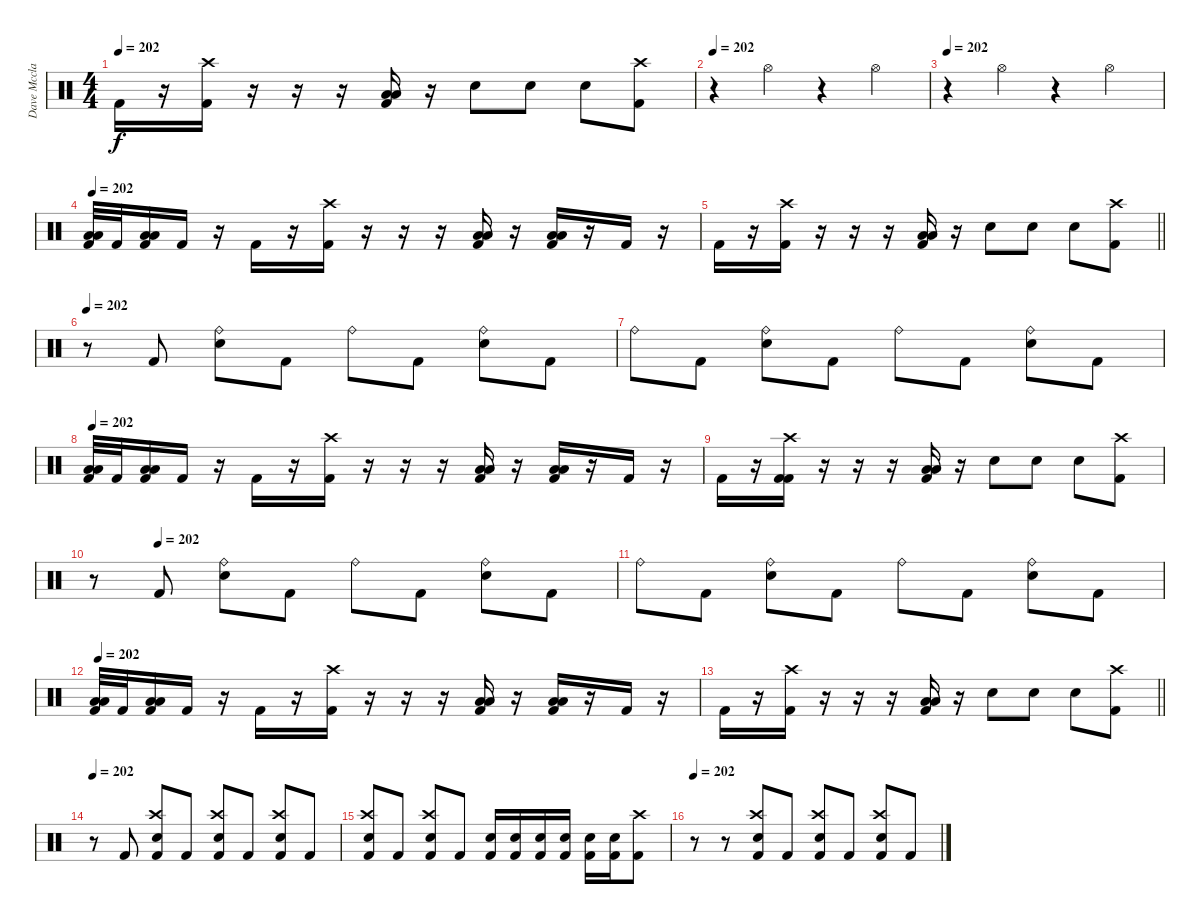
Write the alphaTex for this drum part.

\track ("Dave Mcclain" "Dave Mccla") {instrument percussion}
\staff {score}
\articulation defaults
\ts (4 4)
\tempo 202
\clef neutral
\ks c "Kick (hit) 2".16{dy f}
r.16 ("Crash high (hit)" "Kick (hit) 2").16 r.16 r.16 r.16 ("Low Tom (hit)" "Low Floor Tom (hit)" "Kick (hit) 2").16 r.16 "Electric Snare (hit)".8 "Electric Snare (hit)".8 "Electric Snare (hit)".8 ("Crash high (hit)" "Kick (hit) 2").8 |
\tempo 202
r.4 "Hi-Hat (open)".4 r.4 "Hi-Hat (open)".4 |
\tempo 202
r.4 "Hi-Hat (open)".4 r.4 "Hi-Hat (open)".4 |
\tempo 202
("Low Tom (hit)" "Low Floor Tom (hit)" "Kick (hit) 2").32 "Kick (hit) 2".32 ("Low Tom (hit)" "Low Floor Tom (hit)" "Kick (hit) 2").16 "Kick (hit) 2".16 r.16 "Kick (hit) 2".16 r.16 ("Crash high (hit)" "Kick (hit) 2").16 r.16 r.16 r.16 ("Low Tom (hit)" "Low Floor Tom (hit)" "Kick (hit) 2").16 r.16 ("Low Tom (hit)" "Low Floor Tom (hit)" "Kick (hit) 2").16 r.16 "Kick (hit) 2".16 r.16 |
\barLineRight lightlight "Kick (hit) 2".16
r.16 ("Crash high (hit)" "Kick (hit) 2").16 r.16 r.16 r.16 ("Low Tom (hit)" "Low Floor Tom (hit)" "Kick (hit) 2").16 r.16 "Electric Snare (hit)".8 "Electric Snare (hit)".8 "Electric Snare (hit)".8 ("Crash high (hit)" "Kick (hit) 2").8 |
\section ("" "")
\tempo 202
r.8 "Kick (hit) 2".8 ("Ride (bell)" "Electric Snare (hit)").8 "Kick (hit) 2".8 "Ride (bell)".8 "Kick (hit) 2".8 ("Ride (bell)" "Electric Snare (hit)").8 "Kick (hit) 2".8 |
"Ride (bell)".8 "Kick (hit) 2".8 ("Ride (bell)" "Electric Snare (hit)").8 "Kick (hit) 2".8 "Ride (bell)".8 "Kick (hit) 2".8 ("Ride (bell)" "Electric Snare (hit)").8 "Kick (hit) 2".8 |
\tempo 202
("Low Tom (hit)" "Low Floor Tom (hit)" "Kick (hit) 2").32 "Kick (hit) 2".32 ("Low Tom (hit)" "Low Floor Tom (hit)" "Kick (hit) 2").16 "Kick (hit) 2".16 r.16 "Kick (hit) 2".16 r.16 ("Crash high (hit)" "Kick (hit) 2").16 r.16 r.16 r.16 ("Low Tom (hit)" "Low Floor Tom (hit)" "Kick (hit) 2").16 r.16 ("Low Tom (hit)" "Low Floor Tom (hit)" "Kick (hit) 2").16 r.16 "Kick (hit) 2".16 r.16 |
"Kick (hit) 2".16 r.16 ("Crash high (hit)" "Kick (hit) 2" "Kick (hit) 2").16 r.16 r.16 r.16 ("Low Tom (hit)" "Low Floor Tom (hit)" "Kick (hit) 2").16 r.16 "Electric Snare (hit)".8 "Electric Snare (hit)".8 "Electric Snare (hit)".8 ("Crash high (hit)" "Kick (hit) 2").8 |
\tempo (202 0.125)
r.8 "Kick (hit) 2".8 ("Ride (bell)" "Electric Snare (hit)").8 "Kick (hit) 2".8 "Ride (bell)".8 "Kick (hit) 2".8 ("Ride (bell)" "Electric Snare (hit)").8 "Kick (hit) 2".8 |
"Ride (bell)".8 "Kick (hit) 2".8 ("Ride (bell)" "Electric Snare (hit)").8 "Kick (hit) 2".8 "Ride (bell)".8 "Kick (hit) 2".8 ("Ride (bell)" "Electric Snare (hit)").8 "Kick (hit) 2".8 |
\tempo 202
("Low Tom (hit)" "Low Floor Tom (hit)" "Kick (hit) 2").32 "Kick (hit) 2".32 ("Low Tom (hit)" "Low Floor Tom (hit)" "Kick (hit) 2").16 "Kick (hit) 2".16 r.16 "Kick (hit) 2".16 r.16 ("Crash high (hit)" "Kick (hit) 2").16 r.16 r.16 r.16 ("Low Tom (hit)" "Low Floor Tom (hit)" "Kick (hit) 2").16 r.16 ("Low Tom (hit)" "Low Floor Tom (hit)" "Kick (hit) 2").16 r.16 "Kick (hit) 2".16 r.16 |
\barLineRight lightlight "Kick (hit) 2".16
r.16 ("Crash high (hit)" "Kick (hit) 2").16 r.16 r.16 r.16 ("Low Tom (hit)" "Low Floor Tom (hit)" "Kick (hit) 2").16 r.16 "Electric Snare (hit)".8 "Electric Snare (hit)".8 "Electric Snare (hit)".8 ("Crash high (hit)" "Kick (hit) 2").8 |
\section ("" "")
\tempo 202
r.8 "Kick (hit) 2".8 ("Crash high (hit)" "Electric Snare (hit)" "Kick (hit) 2").8 "Kick (hit) 2".8 ("Crash high (hit)" "Electric Snare (hit)" "Kick (hit) 2").8 "Kick (hit) 2".8 ("Crash high (hit)" "Electric Snare (hit)" "Kick (hit) 2").8 "Kick (hit) 2".8 |
("Crash high (hit)" "Electric Snare (hit)" "Kick (hit) 2").8 "Kick (hit) 2".8 ("Crash high (hit)" "Electric Snare (hit)" "Kick (hit) 2").8 "Kick (hit) 2".8 ("Electric Snare (hit)" "Kick (hit) 2").16 ("Electric Snare (hit)" "Kick (hit) 2").16 ("Electric Snare (hit)" "Kick (hit) 2").16 ("Electric Snare (hit)" "Kick (hit) 2").16 ("Electric Snare (hit)" "Kick (hit) 2").16 ("Electric Snare (hit)" "Kick (hit) 2").16 ("Crash high (hit)" "Kick (hit) 2").8 |
\tempo 202
r.8 r.8 ("Crash high (hit)" "Electric Snare (hit)" "Kick (hit) 2").8 "Kick (hit) 2".8 ("Crash high (hit)" "Electric Snare (hit)" "Kick (hit) 2").8 "Kick (hit) 2".8 ("Crash high (hit)" "Electric Snare (hit)" "Kick (hit) 2").8 "Kick (hit) 2".8
